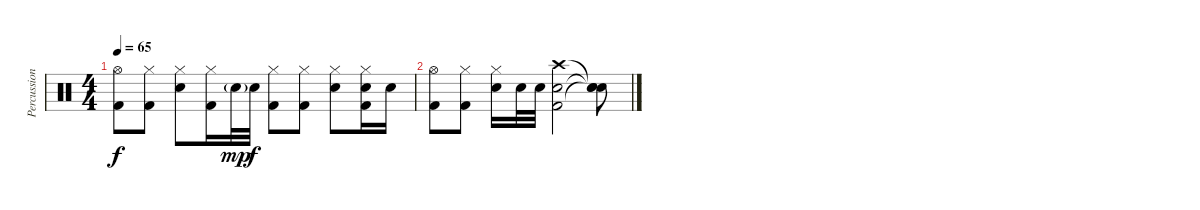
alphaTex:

\track ("Percussioni" "Percussion") {instrument percussion}
\staff {score}
\articulation defaults
\ts (4 4)
\tempo 65
\clef neutral
\ks c
("Hi-Hat (open)" "Kick (hit) 2").8{dy f} ("Hi-Hat (closed)" "Kick (hit) 2").8 ("Electric Snare (hit)" "Hi-Hat (closed)").8 ("Hi-Hat (closed)" "Kick (hit) 2").16 "Electric Snare (hit)"{g}.32{dy mp} "Electric Snare (hit)".32{dy f} ("Kick (hit) 2" "Hi-Hat (closed)").8 ("Hi-Hat (closed)" "Kick (hit) 2").8 ("Electric Snare (hit)" "Hi-Hat (closed)").8 ("Electric Snare (hit)" "Hi-Hat (closed)" "Kick (hit) 2").16 "Electric Snare (hit)".16 |
("Hi-Hat (open)" "Kick (hit) 2").8 ("Hi-Hat (closed)" "Kick (hit) 2").8 ("Electric Snare (hit)" "Hi-Hat (closed)").16 "Electric Snare (hit)".32 "Electric Snare (hit)".32 ("Electric Snare (hit)" "Crash high (hit)" "Kick (hit) 2").2 ("Snare (hit)"{t} "Snare (hit)"{t} "Snare (hit)"{t}).8
